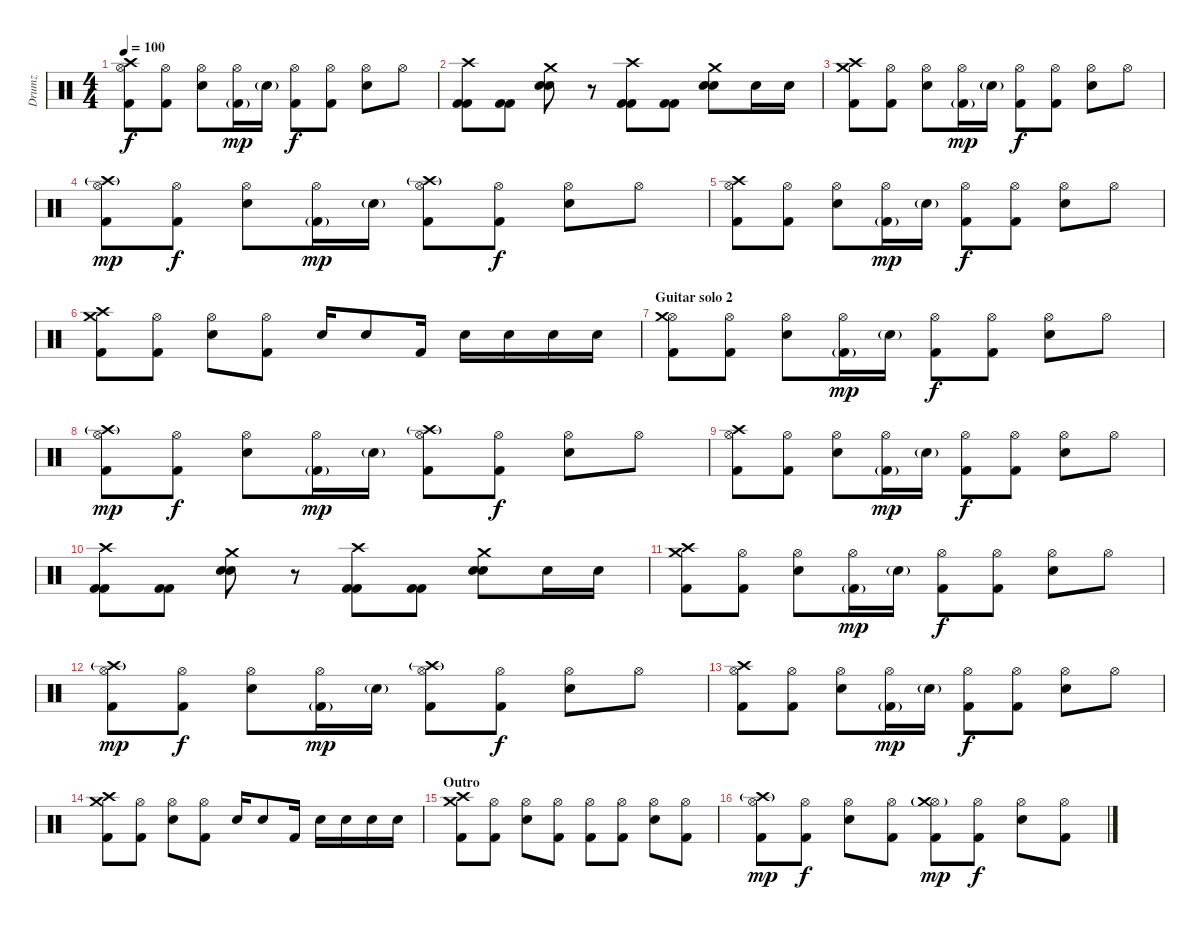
\track ("Drumz" "Drumz") {instrument percussion}
\staff {score}
\articulation defaults
\ts (4 4)
\tempo 100
\clef neutral
\ks c
("Hi-Hat (open)" "Crash high (hit)" "Kick (hit) 2").8{dy f} ("Hi-Hat (open)" "Kick (hit) 2").8 ("Hi-Hat (open)" "Electric Snare (hit)").8 ("Hi-Hat (open)" "Kick (hit) 2"{g}).16{dy mp} "Electric Snare (hit)"{g}.16 ("Hi-Hat (open)" "Kick (hit) 2").8{dy f} ("Hi-Hat (open)" "Kick (hit) 2").8 ("Hi-Hat (open)" "Electric Snare (hit)").8 "Hi-Hat (open)".8 |
("Crash high (hit)" "Kick (hit) 2" "Kick (hit) 2").8 ("Kick (hit) 2" "Kick (hit) 2").8 ("Crash medium (hit)" "Electric Snare (hit)" "Electric Snare (hit)").8 r.8 ("Crash high (hit)" "Kick (hit) 2" "Kick (hit) 2").8 ("Kick (hit) 2" "Kick (hit) 2").8 ("Crash medium (hit)" "Electric Snare (hit)" "Electric Snare (hit)").8 "Electric Snare (hit)".16 "Electric Snare (hit)".16 |
("Crash high (hit)" "Crash medium (hit)" "Kick (hit) 2").8 ("Hi-Hat (open)" "Kick (hit) 2").8 ("Hi-Hat (open)" "Electric Snare (hit)").8 ("Hi-Hat (open)" "Kick (hit) 2"{g}).16{dy mp} "Electric Snare (hit)"{g}.16 ("Hi-Hat (open)" "Kick (hit) 2").8{dy f} ("Hi-Hat (open)" "Kick (hit) 2").8 ("Hi-Hat (open)" "Electric Snare (hit)").8 "Hi-Hat (open)".8 |
("Hi-Hat (open)" "Crash high (hit)"{g} "Kick (hit) 2").8{dy mp} ("Hi-Hat (open)" "Kick (hit) 2").8{dy f} ("Hi-Hat (open)" "Electric Snare (hit)").8 ("Hi-Hat (open)" "Kick (hit) 2"{g}).16{dy mp} "Electric Snare (hit)"{g}.16 ("Hi-Hat (open)" "Crash high (hit)"{g} "Kick (hit) 2").8 ("Hi-Hat (open)" "Kick (hit) 2").8{dy f} ("Hi-Hat (open)" "Electric Snare (hit)").8 "Hi-Hat (open)".8 |
("Hi-Hat (open)" "Crash high (hit)" "Kick (hit) 2").8 ("Hi-Hat (open)" "Kick (hit) 2").8 ("Hi-Hat (open)" "Electric Snare (hit)").8 ("Hi-Hat (open)" "Kick (hit) 2"{g}).16{dy mp} "Electric Snare (hit)"{g}.16 ("Hi-Hat (open)" "Kick (hit) 2").8{dy f} ("Hi-Hat (open)" "Kick (hit) 2").8 ("Hi-Hat (open)" "Electric Snare (hit)").8 "Hi-Hat (open)".8 |
("Crash high (hit)" "Crash medium (hit)" "Kick (hit) 2").8 ("Hi-Hat (open)" "Kick (hit) 2").8 ("Hi-Hat (open)" "Electric Snare (hit)").8 ("Hi-Hat (open)" "Kick (hit) 2").8 "Electric Snare (hit)".16 "Electric Snare (hit)".8 "Kick (hit) 2".16 "Electric Snare (hit)".16 "Electric Snare (hit)".16 "Electric Snare (hit)".16 "Electric Snare (hit)".16 |
\section ("" "Guitar solo 2")
("Hi-Hat (open)" "Crash medium (hit)" "Kick (hit) 2").8 ("Hi-Hat (open)" "Kick (hit) 2").8 ("Hi-Hat (open)" "Electric Snare (hit)").8 ("Hi-Hat (open)" "Kick (hit) 2"{g}).16{dy mp} "Electric Snare (hit)"{g}.16 ("Hi-Hat (open)" "Kick (hit) 2").8{dy f} ("Hi-Hat (open)" "Kick (hit) 2").8 ("Hi-Hat (open)" "Electric Snare (hit)").8 "Hi-Hat (open)".8 |
("Hi-Hat (open)" "Crash high (hit)"{g} "Kick (hit) 2").8{dy mp} ("Hi-Hat (open)" "Kick (hit) 2").8{dy f} ("Hi-Hat (open)" "Electric Snare (hit)").8 ("Hi-Hat (open)" "Kick (hit) 2"{g}).16{dy mp} "Electric Snare (hit)"{g}.16 ("Hi-Hat (open)" "Crash high (hit)"{g} "Kick (hit) 2").8 ("Hi-Hat (open)" "Kick (hit) 2").8{dy f} ("Hi-Hat (open)" "Electric Snare (hit)").8 "Hi-Hat (open)".8 |
("Hi-Hat (open)" "Crash high (hit)" "Kick (hit) 2").8 ("Hi-Hat (open)" "Kick (hit) 2").8 ("Hi-Hat (open)" "Electric Snare (hit)").8 ("Hi-Hat (open)" "Kick (hit) 2"{g}).16{dy mp} "Electric Snare (hit)"{g}.16 ("Hi-Hat (open)" "Kick (hit) 2").8{dy f} ("Hi-Hat (open)" "Kick (hit) 2").8 ("Hi-Hat (open)" "Electric Snare (hit)").8 "Hi-Hat (open)".8 |
("Crash high (hit)" "Kick (hit) 2" "Kick (hit) 2").8 ("Kick (hit) 2" "Kick (hit) 2").8 ("Crash medium (hit)" "Electric Snare (hit)" "Electric Snare (hit)").8 r.8 ("Crash high (hit)" "Kick (hit) 2" "Kick (hit) 2").8 ("Kick (hit) 2" "Kick (hit) 2").8 ("Crash medium (hit)" "Electric Snare (hit)" "Electric Snare (hit)").8 "Electric Snare (hit)".16 "Electric Snare (hit)".16 |
("Crash high (hit)" "Crash medium (hit)" "Kick (hit) 2").8 ("Hi-Hat (open)" "Kick (hit) 2").8 ("Hi-Hat (open)" "Electric Snare (hit)").8 ("Hi-Hat (open)" "Kick (hit) 2"{g}).16{dy mp} "Electric Snare (hit)"{g}.16 ("Hi-Hat (open)" "Kick (hit) 2").8{dy f} ("Hi-Hat (open)" "Kick (hit) 2").8 ("Hi-Hat (open)" "Electric Snare (hit)").8 "Hi-Hat (open)".8 |
("Hi-Hat (open)" "Crash high (hit)"{g} "Kick (hit) 2").8{dy mp} ("Hi-Hat (open)" "Kick (hit) 2").8{dy f} ("Hi-Hat (open)" "Electric Snare (hit)").8 ("Hi-Hat (open)" "Kick (hit) 2"{g}).16{dy mp} "Electric Snare (hit)"{g}.16 ("Hi-Hat (open)" "Crash high (hit)"{g} "Kick (hit) 2").8 ("Hi-Hat (open)" "Kick (hit) 2").8{dy f} ("Hi-Hat (open)" "Electric Snare (hit)").8 "Hi-Hat (open)".8 |
("Hi-Hat (open)" "Crash high (hit)" "Kick (hit) 2").8 ("Hi-Hat (open)" "Kick (hit) 2").8 ("Hi-Hat (open)" "Electric Snare (hit)").8 ("Hi-Hat (open)" "Kick (hit) 2"{g}).16{dy mp} "Electric Snare (hit)"{g}.16 ("Hi-Hat (open)" "Kick (hit) 2").8{dy f} ("Hi-Hat (open)" "Kick (hit) 2").8 ("Hi-Hat (open)" "Electric Snare (hit)").8 "Hi-Hat (open)".8 |
("Crash high (hit)" "Crash medium (hit)" "Kick (hit) 2").8 ("Hi-Hat (open)" "Kick (hit) 2").8 ("Hi-Hat (open)" "Electric Snare (hit)").8 ("Hi-Hat (open)" "Kick (hit) 2").8 "Electric Snare (hit)".16 "Electric Snare (hit)".8 "Kick (hit) 2".16 "Electric Snare (hit)".16 "Electric Snare (hit)".16 "Electric Snare (hit)".16 "Electric Snare (hit)".16 |
\section ("" "Outro")
("Crash high (hit)" "Crash medium (hit)" "Kick (hit) 2").8 ("Hi-Hat (open)" "Kick (hit) 2").8 ("Hi-Hat (open)" "Electric Snare (hit)").8 ("Hi-Hat (open)" "Kick (hit) 2").8 ("Hi-Hat (open)" "Kick (hit) 2").8 ("Hi-Hat (open)" "Kick (hit) 2").8 ("Hi-Hat (open)" "Electric Snare (hit)").8 ("Hi-Hat (open)" "Kick (hit) 2").8 |
("Hi-Hat (open)" "Crash high (hit)"{g} "Kick (hit) 2").8{dy mp} ("Hi-Hat (open)" "Kick (hit) 2").8{dy f} ("Hi-Hat (open)" "Electric Snare (hit)").8 ("Hi-Hat (open)" "Kick (hit) 2").8 ("Hi-Hat (open)" "Crash medium (hit)"{g} "Kick (hit) 2").8{dy mp} ("Hi-Hat (open)" "Kick (hit) 2").8{dy f} ("Hi-Hat (open)" "Electric Snare (hit)").8 ("Hi-Hat (open)" "Kick (hit) 2").8
